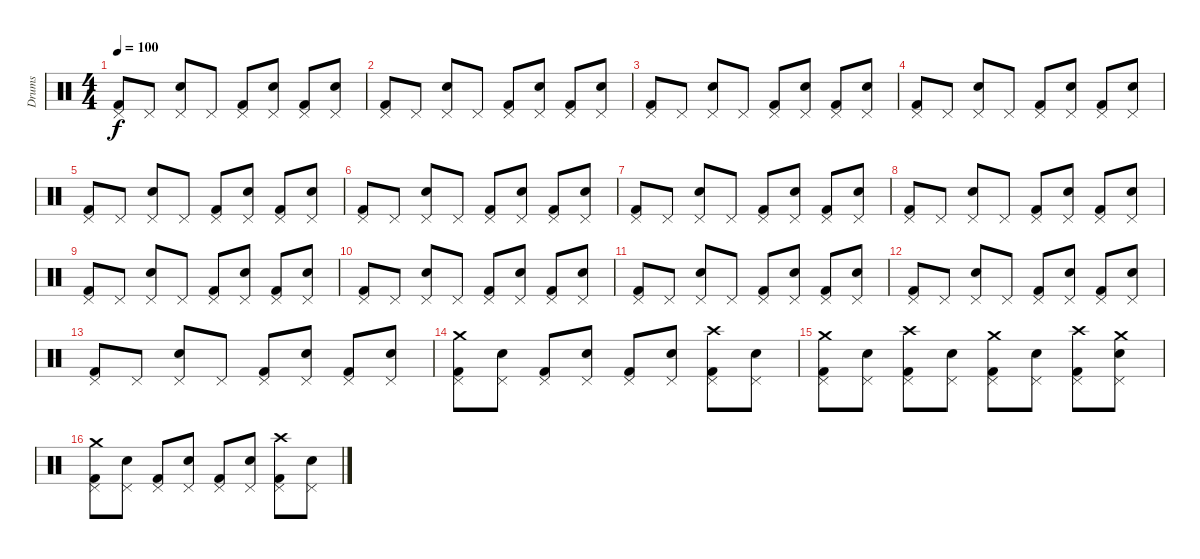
\track ("Drums" "Drums") {instrument percussion}
\staff {score}
\articulation defaults
\ts (4 4)
\tempo 100
\clef neutral
\ks c
("Pedal Hi-Hat (hit)" "Kick (hit) 2").8{dy f} "Pedal Hi-Hat (hit)".8 ("Pedal Hi-Hat (hit)" "Electric Snare (hit)").8 "Pedal Hi-Hat (hit)".8 ("Pedal Hi-Hat (hit)" "Kick (hit) 2").8 ("Pedal Hi-Hat (hit)" "Electric Snare (hit)").8 ("Pedal Hi-Hat (hit)" "Kick (hit) 2").8 ("Pedal Hi-Hat (hit)" "Electric Snare (hit)").8 |
("Pedal Hi-Hat (hit)" "Kick (hit) 2").8 "Pedal Hi-Hat (hit)".8 ("Pedal Hi-Hat (hit)" "Electric Snare (hit)").8 "Pedal Hi-Hat (hit)".8 ("Pedal Hi-Hat (hit)" "Kick (hit) 2").8 ("Pedal Hi-Hat (hit)" "Electric Snare (hit)").8 ("Pedal Hi-Hat (hit)" "Kick (hit) 2").8 ("Pedal Hi-Hat (hit)" "Electric Snare (hit)").8 |
("Pedal Hi-Hat (hit)" "Kick (hit) 2").8 "Pedal Hi-Hat (hit)".8 ("Pedal Hi-Hat (hit)" "Electric Snare (hit)").8 "Pedal Hi-Hat (hit)".8 ("Pedal Hi-Hat (hit)" "Kick (hit) 2").8 ("Pedal Hi-Hat (hit)" "Electric Snare (hit)").8 ("Pedal Hi-Hat (hit)" "Kick (hit) 2").8 ("Pedal Hi-Hat (hit)" "Electric Snare (hit)").8 |
("Pedal Hi-Hat (hit)" "Kick (hit) 2").8 "Pedal Hi-Hat (hit)".8 ("Pedal Hi-Hat (hit)" "Electric Snare (hit)").8 "Pedal Hi-Hat (hit)".8 ("Pedal Hi-Hat (hit)" "Kick (hit) 2").8 ("Pedal Hi-Hat (hit)" "Electric Snare (hit)").8 ("Pedal Hi-Hat (hit)" "Kick (hit) 2").8 ("Pedal Hi-Hat (hit)" "Electric Snare (hit)").8 |
("Pedal Hi-Hat (hit)" "Kick (hit) 2").8 "Pedal Hi-Hat (hit)".8 ("Pedal Hi-Hat (hit)" "Electric Snare (hit)").8 "Pedal Hi-Hat (hit)".8 ("Pedal Hi-Hat (hit)" "Kick (hit) 2").8 ("Pedal Hi-Hat (hit)" "Electric Snare (hit)").8 ("Pedal Hi-Hat (hit)" "Kick (hit) 2").8 ("Pedal Hi-Hat (hit)" "Electric Snare (hit)").8 |
("Pedal Hi-Hat (hit)" "Kick (hit) 2").8 "Pedal Hi-Hat (hit)".8 ("Pedal Hi-Hat (hit)" "Electric Snare (hit)").8 "Pedal Hi-Hat (hit)".8 ("Pedal Hi-Hat (hit)" "Kick (hit) 2").8 ("Pedal Hi-Hat (hit)" "Electric Snare (hit)").8 ("Pedal Hi-Hat (hit)" "Kick (hit) 2").8 ("Pedal Hi-Hat (hit)" "Electric Snare (hit)").8 |
("Pedal Hi-Hat (hit)" "Kick (hit) 2").8 "Pedal Hi-Hat (hit)".8 ("Pedal Hi-Hat (hit)" "Electric Snare (hit)").8 "Pedal Hi-Hat (hit)".8 ("Pedal Hi-Hat (hit)" "Kick (hit) 2").8 ("Pedal Hi-Hat (hit)" "Electric Snare (hit)").8 ("Pedal Hi-Hat (hit)" "Kick (hit) 2").8 ("Pedal Hi-Hat (hit)" "Electric Snare (hit)").8 |
("Pedal Hi-Hat (hit)" "Kick (hit) 2").8 "Pedal Hi-Hat (hit)".8 ("Pedal Hi-Hat (hit)" "Electric Snare (hit)").8 "Pedal Hi-Hat (hit)".8 ("Pedal Hi-Hat (hit)" "Kick (hit) 2").8 ("Pedal Hi-Hat (hit)" "Electric Snare (hit)").8 ("Pedal Hi-Hat (hit)" "Kick (hit) 2").8 ("Pedal Hi-Hat (hit)" "Electric Snare (hit)").8 |
("Pedal Hi-Hat (hit)" "Kick (hit) 2").8 "Pedal Hi-Hat (hit)".8 ("Pedal Hi-Hat (hit)" "Electric Snare (hit)").8 "Pedal Hi-Hat (hit)".8 ("Pedal Hi-Hat (hit)" "Kick (hit) 2").8 ("Pedal Hi-Hat (hit)" "Electric Snare (hit)").8 ("Pedal Hi-Hat (hit)" "Kick (hit) 2").8 ("Pedal Hi-Hat (hit)" "Electric Snare (hit)").8 |
("Pedal Hi-Hat (hit)" "Kick (hit) 2").8 "Pedal Hi-Hat (hit)".8 ("Pedal Hi-Hat (hit)" "Electric Snare (hit)").8 "Pedal Hi-Hat (hit)".8 ("Pedal Hi-Hat (hit)" "Kick (hit) 2").8 ("Pedal Hi-Hat (hit)" "Electric Snare (hit)").8 ("Pedal Hi-Hat (hit)" "Kick (hit) 2").8 ("Pedal Hi-Hat (hit)" "Electric Snare (hit)").8 |
("Pedal Hi-Hat (hit)" "Kick (hit) 2").8 "Pedal Hi-Hat (hit)".8 ("Pedal Hi-Hat (hit)" "Electric Snare (hit)").8 "Pedal Hi-Hat (hit)".8 ("Pedal Hi-Hat (hit)" "Kick (hit) 2").8 ("Pedal Hi-Hat (hit)" "Electric Snare (hit)").8 ("Pedal Hi-Hat (hit)" "Kick (hit) 2").8 ("Pedal Hi-Hat (hit)" "Electric Snare (hit)").8 |
("Pedal Hi-Hat (hit)" "Kick (hit) 2").8 "Pedal Hi-Hat (hit)".8 ("Pedal Hi-Hat (hit)" "Electric Snare (hit)").8 "Pedal Hi-Hat (hit)".8 ("Pedal Hi-Hat (hit)" "Kick (hit) 2").8 ("Pedal Hi-Hat (hit)" "Electric Snare (hit)").8 ("Pedal Hi-Hat (hit)" "Kick (hit) 2").8 ("Pedal Hi-Hat (hit)" "Electric Snare (hit)").8 |
("Pedal Hi-Hat (hit)" "Kick (hit) 2").8 "Pedal Hi-Hat (hit)".8 ("Pedal Hi-Hat (hit)" "Electric Snare (hit)").8 "Pedal Hi-Hat (hit)".8 ("Pedal Hi-Hat (hit)" "Kick (hit) 2").8 ("Pedal Hi-Hat (hit)" "Electric Snare (hit)").8 ("Pedal Hi-Hat (hit)" "Kick (hit) 2").8 ("Pedal Hi-Hat (hit)" "Electric Snare (hit)").8 |
("Crash medium (hit)" "Pedal Hi-Hat (hit)" "Kick (hit) 2").8 ("Pedal Hi-Hat (hit)" "Electric Snare (hit)").8 ("Pedal Hi-Hat (hit)" "Kick (hit) 2").8 ("Pedal Hi-Hat (hit)" "Electric Snare (hit)").8 ("Pedal Hi-Hat (hit)" "Kick (hit) 2").8 ("Pedal Hi-Hat (hit)" "Electric Snare (hit)").8 ("Crash high (hit)" "Pedal Hi-Hat (hit)" "Kick (hit) 2").8 ("Pedal Hi-Hat (hit)" "Electric Snare (hit)").8 |
("Crash medium (hit)" "Pedal Hi-Hat (hit)" "Kick (hit) 2").8 ("Pedal Hi-Hat (hit)" "Electric Snare (hit)").8 ("Crash high (hit)" "Pedal Hi-Hat (hit)" "Kick (hit) 2").8 ("Pedal Hi-Hat (hit)" "Electric Snare (hit)").8 ("Crash medium (hit)" "Pedal Hi-Hat (hit)" "Kick (hit) 2").8 ("Pedal Hi-Hat (hit)" "Electric Snare (hit)").8 ("Crash high (hit)" "Pedal Hi-Hat (hit)" "Kick (hit) 2").8 ("Crash medium (hit)" "Pedal Hi-Hat (hit)" "Electric Snare (hit)").8 |
("Crash medium (hit)" "Pedal Hi-Hat (hit)" "Kick (hit) 2").8 ("Pedal Hi-Hat (hit)" "Electric Snare (hit)").8 ("Pedal Hi-Hat (hit)" "Kick (hit) 2").8 ("Pedal Hi-Hat (hit)" "Electric Snare (hit)").8 ("Pedal Hi-Hat (hit)" "Kick (hit) 2").8 ("Pedal Hi-Hat (hit)" "Electric Snare (hit)").8 ("Crash high (hit)" "Pedal Hi-Hat (hit)" "Kick (hit) 2").8 ("Pedal Hi-Hat (hit)" "Electric Snare (hit)").8
